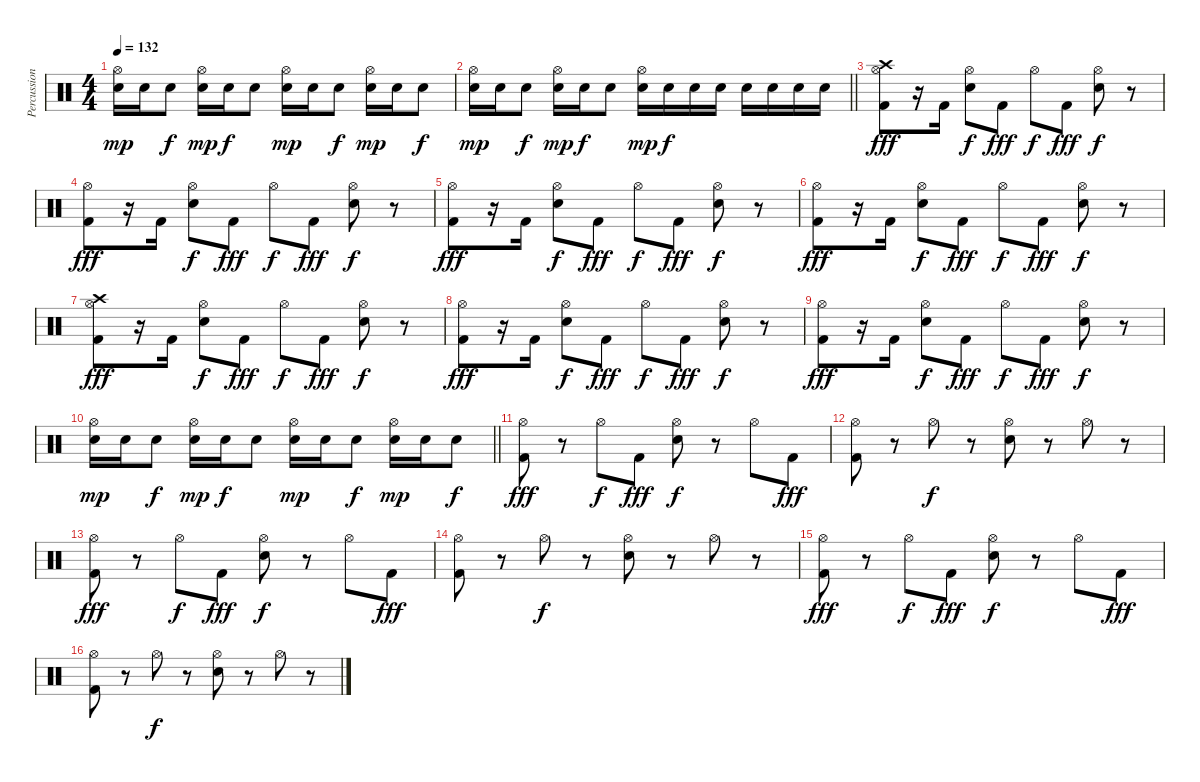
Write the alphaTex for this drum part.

\track ("Percussion" "Percussion") {instrument percussion}
\staff {score}
\articulation defaults
\ts (4 4)
\tempo 132
\clef neutral
\ks c
("Electric Snare (hit)" "Hi-Hat (open)").16{dy mp} "Electric Snare (hit)".16 "Electric Snare (hit)".8{dy f} ("Electric Snare (hit)" "Hi-Hat (open)").16{dy mp} "Electric Snare (hit)".16{dy f} "Electric Snare (hit)".8 ("Electric Snare (hit)" "Hi-Hat (open)").16{dy mp} "Electric Snare (hit)".16 "Electric Snare (hit)".8{dy f} ("Electric Snare (hit)" "Hi-Hat (open)").16{dy mp} "Electric Snare (hit)".16 "Electric Snare (hit)".8{dy f} |
\barLineRight lightlight
("Electric Snare (hit)" "Hi-Hat (open)").16{dy mp} "Electric Snare (hit)".16 "Electric Snare (hit)".8{dy f} ("Electric Snare (hit)" "Hi-Hat (open)").16{dy mp} "Electric Snare (hit)".16{dy f} "Electric Snare (hit)".8 ("Electric Snare (hit)" "Hi-Hat (open)").16{dy mp} "Electric Snare (hit)".16{dy f} "Electric Snare (hit)".16 "Electric Snare (hit)".16 "Electric Snare (hit)".16 "Electric Snare (hit)".16 "Electric Snare (hit)".16 "Electric Snare (hit)".16 |
\section ("" "")
("Kick (hit) 2" "Hi-Hat (open)" "Crash high (hit)").8{dy fff} r.16 "Kick (hit) 2".16 ("Electric Snare (hit)" "Hi-Hat (open)").8{dy f} "Kick (hit) 2".8{dy fff} "Hi-Hat (open)".8{dy f} "Kick (hit) 2".8{dy fff} ("Electric Snare (hit)" "Hi-Hat (open)").8{dy f} r.8 |
("Kick (hit) 2" "Hi-Hat (open)").8{dy fff} r.16 "Kick (hit) 2".16 ("Electric Snare (hit)" "Hi-Hat (open)").8{dy f} "Kick (hit) 2".8{dy fff} "Hi-Hat (open)".8{dy f} "Kick (hit) 2".8{dy fff} ("Electric Snare (hit)" "Hi-Hat (open)").8{dy f} r.8 |
("Kick (hit) 2" "Hi-Hat (open)").8{dy fff} r.16 "Kick (hit) 2".16 ("Electric Snare (hit)" "Hi-Hat (open)").8{dy f} "Kick (hit) 2".8{dy fff} "Hi-Hat (open)".8{dy f} "Kick (hit) 2".8{dy fff} ("Electric Snare (hit)" "Hi-Hat (open)").8{dy f} r.8 |
("Kick (hit) 2" "Hi-Hat (open)").8{dy fff} r.16 "Kick (hit) 2".16 ("Electric Snare (hit)" "Hi-Hat (open)").8{dy f} "Kick (hit) 2".8{dy fff} "Hi-Hat (open)".8{dy f} "Kick (hit) 2".8{dy fff} ("Electric Snare (hit)" "Hi-Hat (open)").8{dy f} r.8 |
("Kick (hit) 2" "Hi-Hat (open)" "Crash high (hit)").8{dy fff} r.16 "Kick (hit) 2".16 ("Electric Snare (hit)" "Hi-Hat (open)").8{dy f} "Kick (hit) 2".8{dy fff} "Hi-Hat (open)".8{dy f} "Kick (hit) 2".8{dy fff} ("Electric Snare (hit)" "Hi-Hat (open)").8{dy f} r.8 |
("Kick (hit) 2" "Hi-Hat (open)").8{dy fff} r.16 "Kick (hit) 2".16 ("Electric Snare (hit)" "Hi-Hat (open)").8{dy f} "Kick (hit) 2".8{dy fff} "Hi-Hat (open)".8{dy f} "Kick (hit) 2".8{dy fff} ("Electric Snare (hit)" "Hi-Hat (open)").8{dy f} r.8 |
("Kick (hit) 2" "Hi-Hat (open)").8{dy fff} r.16 "Kick (hit) 2".16 ("Electric Snare (hit)" "Hi-Hat (open)").8{dy f} "Kick (hit) 2".8{dy fff} "Hi-Hat (open)".8{dy f} "Kick (hit) 2".8{dy fff} ("Electric Snare (hit)" "Hi-Hat (open)").8{dy f} r.8 |
\barLineRight lightlight
("Electric Snare (hit)" "Hi-Hat (open)").16{dy mp} "Electric Snare (hit)".16 "Electric Snare (hit)".8{dy f} ("Electric Snare (hit)" "Hi-Hat (open)").16{dy mp} "Electric Snare (hit)".16{dy f} "Electric Snare (hit)".8 ("Electric Snare (hit)" "Hi-Hat (open)").16{dy mp} "Electric Snare (hit)".16 "Electric Snare (hit)".8{dy f} ("Electric Snare (hit)" "Hi-Hat (open)").16{dy mp} "Electric Snare (hit)".16 "Electric Snare (hit)".8{dy f} |
\section ("" "")
("Kick (hit) 2" "Hi-Hat (open)").8{dy fff} r.8 "Hi-Hat (open)".8{dy f} "Kick (hit) 2".8{dy fff} ("Electric Snare (hit)" "Hi-Hat (open)").8{dy f} r.8 "Hi-Hat (open)".8 "Kick (hit) 2".8{dy fff} |
("Kick (hit) 2" "Hi-Hat (open)").8 r.8 "Hi-Hat (open)".8{dy f} r.8 ("Electric Snare (hit)" "Hi-Hat (open)").8 r.8 "Hi-Hat (open)".8 r.8 |
("Kick (hit) 2" "Hi-Hat (open)").8{dy fff} r.8 "Hi-Hat (open)".8{dy f} "Kick (hit) 2".8{dy fff} ("Electric Snare (hit)" "Hi-Hat (open)").8{dy f} r.8 "Hi-Hat (open)".8 "Kick (hit) 2".8{dy fff} |
("Kick (hit) 2" "Hi-Hat (open)").8 r.8 "Hi-Hat (open)".8{dy f} r.8 ("Electric Snare (hit)" "Hi-Hat (open)").8 r.8 "Hi-Hat (open)".8 r.8 |
("Kick (hit) 2" "Hi-Hat (open)").8{dy fff} r.8 "Hi-Hat (open)".8{dy f} "Kick (hit) 2".8{dy fff} ("Electric Snare (hit)" "Hi-Hat (open)").8{dy f} r.8 "Hi-Hat (open)".8 "Kick (hit) 2".8{dy fff} |
("Kick (hit) 2" "Hi-Hat (open)").8 r.8 "Hi-Hat (open)".8{dy f} r.8 ("Electric Snare (hit)" "Hi-Hat (open)").8 r.8 "Hi-Hat (open)".8 r.8
